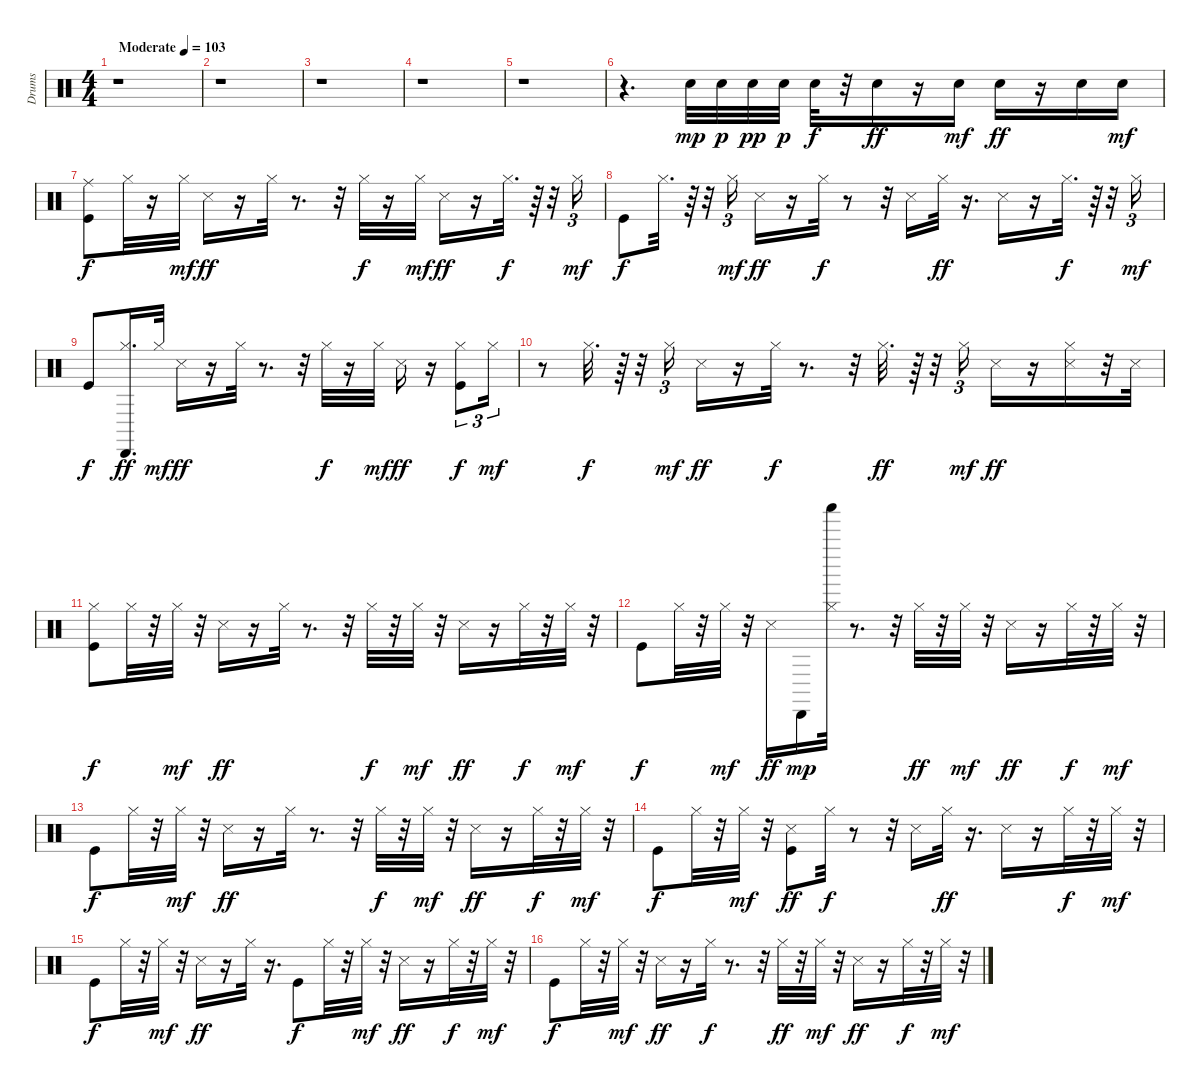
\track ("Drums" "Drums") {instrument percussion}
\staff {score}
\articulation defaults
\ts (4 4)
\tempo (103 "Moderate")
\clef neutral
\ks c
r.1{dy mp} |
r.1 |
r.1 |
r.1 |
r.1 |
r.4{d} "Electric Snare (hit)".32 "Electric Snare (hit)".32{dy p} "Electric Snare (hit)".32{dy pp} "Electric Snare (hit)".32{dy p} "Electric Snare (hit)".32{dy f} r.32 "Electric Snare (hit)".16{dy ff} r.16 "Electric Snare (hit)".16{dy mf} "Electric Snare (hit)".16{dy ff} r.16 "Electric Snare (hit)".16 "Electric Snare (hit)".16{dy mf} |
("Kick (hit)" "Ride (middle)").8{dy f} "Hi-Hat (closed)".32 r.16 "Hi-Hat (closed)".32{dy mf} "Snare (side stick) 3".16{dy ff} r.16 "Hi-Hat (closed)".32 r.8{d} r.32 "Hi-Hat (closed)".32{dy f} r.16 "Hi-Hat (closed)".32{dy mf} "Snare (side stick) 3".16{dy ff} r.16 "Hi-Hat (closed)".32{d dy f} r.64 r.32 "Hi-Hat (closed)".16{tu (3 2) dy mf} |
"Kick (hit)".8{dy f} "Hi-Hat (closed)".32{d} r.64 r.32 "Hi-Hat (closed)".16{tu (3 2) dy mf} "Snare (side stick) 3".16{dy ff} r.16 "Hi-Hat (closed)".32{dy f} r.8 r.32 "Snare (side stick) 3".16 "Hi-Hat (closed)".32{dy ff} r.16{d} "Snare (side stick) 3".16 r.16 "Hi-Hat (closed)".32{d dy f} r.64 r.32 "Hi-Hat (closed)".16{tu (3 2) dy mf} |
"Kick (hit)".8{dy f} ("Cabasa (hit)" "Hi-Hat (closed)").16{d dy ff} "Hi-Hat (closed)".32{dy mf} "Snare (side stick) 3".16{dy ff} r.16 "Hi-Hat (closed)".32 r.8{d} r.32 "Hi-Hat (closed)".32{dy f} r.16 "Hi-Hat (closed)".32{dy mf} "Snare (side stick) 3".16{dy ff} r.16 ("Kick (hit)" "Hi-Hat (closed)").8{tu (3 2) dy f} "Hi-Hat (closed)".16{tu (3 2) dy mf} |
r.8 "Hi-Hat (closed)".32{d dy f} r.64 r.32 "Hi-Hat (closed)".16{tu (3 2) dy mf} "Snare (side stick) 3".16{dy ff} r.16 "Hi-Hat (closed)".32{dy f} r.8{d} r.32 "Hi-Hat (closed)".32{d dy ff} r.64 r.32 "Hi-Hat (closed)".16{tu (3 2) dy mf} "Snare (side stick) 3".16{dy ff} r.16 ("Snare (side stick) 3" "Hi-Hat (closed)").16 r.32 "Snare (side stick) 3".32 |
("Kick (hit)" "Hi-Hat (closed)").8{dy f} "Hi-Hat (closed)".32 r.32 "Hi-Hat (closed)".32{dy mf} r.32 "Snare (side stick) 3".16{dy ff} r.16 "Hi-Hat (closed)".32 r.8{d} r.32 "Hi-Hat (closed)".32{dy f} r.32 "Hi-Hat (closed)".32{dy mf} r.32 "Snare (side stick) 3".16{dy ff} r.16 "Hi-Hat (closed)".32{dy f} r.32 "Hi-Hat (closed)".32{dy mf} r.32 |
"Kick (hit)".8{dy f} "Hi-Hat (closed)".32 r.32 "Hi-Hat (closed)".32{dy mf} r.32 "Snare (side stick) 3".16{dy ff} "Cabasa (hit)".16{dy mp} ("Shaker (hit)" "Hi-Hat (closed)").32 r.8{d} r.32 "Hi-Hat (closed)".32{dy ff} r.32 "Hi-Hat (closed)".32{dy mf} r.32 "Snare (side stick) 3".16{dy ff} r.16 "Hi-Hat (closed)".32{dy f} r.32 "Hi-Hat (closed)".32{dy mf} r.32 |
"Kick (hit)".8{dy f} "Hi-Hat (closed)".32 r.32 "Hi-Hat (closed)".32{dy mf} r.32 "Snare (side stick) 3".16{dy ff} r.16 "Hi-Hat (closed)".32 r.8{d} r.32 "Hi-Hat (closed)".32{dy f} r.32 "Hi-Hat (closed)".32{dy mf} r.32 "Snare (side stick) 3".16{dy ff} r.16 "Hi-Hat (closed)".32{dy f} r.32 "Hi-Hat (closed)".32{dy mf} r.32 |
"Kick (hit)".8{dy f} "Hi-Hat (closed)".32 r.32 "Hi-Hat (closed)".32{dy mf} r.32 ("Kick (hit)" "Snare (side stick) 3").8{dy ff} "Hi-Hat (closed)".32{dy f} r.8 r.32 "Snare (side stick) 3".16 "Hi-Hat (closed)".32{dy ff} r.16{d} "Snare (side stick) 3".16 r.16 "Hi-Hat (closed)".32{dy f} r.32 "Hi-Hat (closed)".32{dy mf} r.32 |
"Kick (hit)".8{dy f} "Hi-Hat (closed)".32 r.32 "Hi-Hat (closed)".32{dy mf} r.32 "Snare (side stick) 3".16{dy ff} r.16 "Hi-Hat (closed)".32 r.16{d} "Kick (hit)".8{dy f} "Hi-Hat (closed)".32 r.32 "Hi-Hat (closed)".32{dy mf} r.32 "Snare (side stick) 3".16{dy ff} r.16 "Hi-Hat (closed)".32{dy f} r.32 "Hi-Hat (closed)".32{dy mf} r.32 |
"Kick (hit)".8{dy f} "Hi-Hat (closed)".32 r.32 "Hi-Hat (closed)".32{dy mf} r.32 "Snare (side stick) 3".16{dy ff} r.16 "Hi-Hat (closed)".32{dy f} r.8{d} r.32 "Hi-Hat (closed)".32{dy ff} r.32 "Hi-Hat (closed)".32{dy mf} r.32 "Snare (side stick) 3".16{dy ff} r.16 "Hi-Hat (closed)".32{dy f} r.32 "Hi-Hat (closed)".32{dy mf} r.32
